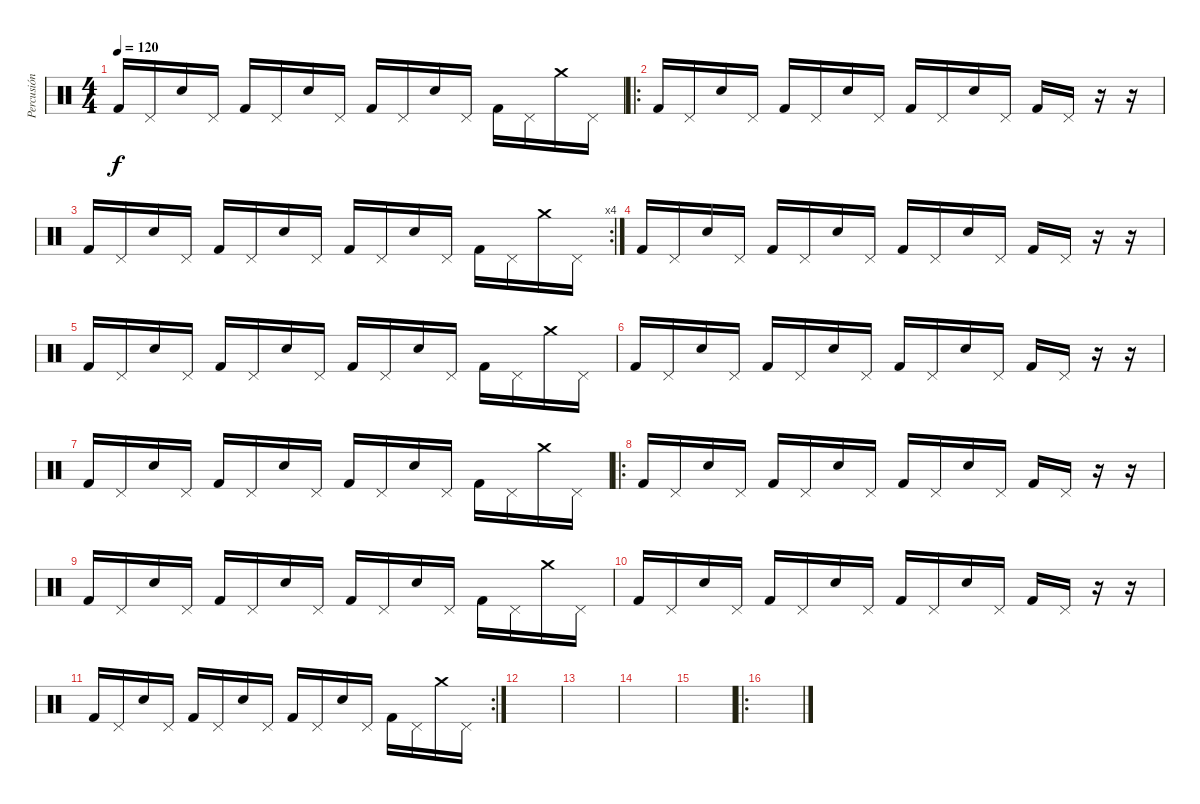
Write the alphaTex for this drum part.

\track ("Percusión" "Percusión") {instrument percussion}
\staff {score}
\articulation defaults
\ts (4 4)
\tempo 120
\clef neutral
\ks c "Kick (hit) 2".16{dy f} "Pedal Hi-Hat (hit)".16 "Snare (hit) 2".16 "Pedal Hi-Hat (hit)".16 "Kick (hit) 2".16 "Pedal Hi-Hat (hit)".16 "Snare (hit) 2".16 "Pedal Hi-Hat (hit)".16 "Kick (hit) 2".16 "Pedal Hi-Hat (hit)".16 "Snare (hit) 2".16 "Pedal Hi-Hat (hit)".16 "Kick (hit) 2".16 "Pedal Hi-Hat (hit)".16 "Crash medium (hit)".16 "Pedal Hi-Hat (hit)".16
|
\ro "Kick (hit) 2".16 "Pedal Hi-Hat (hit)".16 "Snare (hit) 2".16 "Pedal Hi-Hat (hit)".16 "Kick (hit) 2".16 "Pedal Hi-Hat (hit)".16 "Snare (hit) 2".16 "Pedal Hi-Hat (hit)".16 "Kick (hit) 2".16 "Pedal Hi-Hat (hit)".16 "Snare (hit) 2".16 "Pedal Hi-Hat (hit)".16 "Kick (hit) 2".16 "Pedal Hi-Hat (hit)".16
r.16 r.16 |
\rc 4 "Kick (hit) 2".16 "Pedal Hi-Hat (hit)".16 "Snare (hit) 2".16 "Pedal Hi-Hat (hit)".16 "Kick (hit) 2".16 "Pedal Hi-Hat (hit)".16 "Snare (hit) 2".16 "Pedal Hi-Hat (hit)".16 "Kick (hit) 2".16 "Pedal Hi-Hat (hit)".16 "Snare (hit) 2".16 "Pedal Hi-Hat (hit)".16 "Kick (hit) 2".16 "Pedal Hi-Hat (hit)".16 "Crash medium (hit)".16 "Pedal Hi-Hat (hit)".16
|
"Kick (hit) 2".16 "Pedal Hi-Hat (hit)".16 "Snare (hit) 2".16 "Pedal Hi-Hat (hit)".16 "Kick (hit) 2".16 "Pedal Hi-Hat (hit)".16 "Snare (hit) 2".16 "Pedal Hi-Hat (hit)".16 "Kick (hit) 2".16 "Pedal Hi-Hat (hit)".16 "Snare (hit) 2".16 "Pedal Hi-Hat (hit)".16 "Kick (hit) 2".16 "Pedal Hi-Hat (hit)".16 r.16 r.16 |
"Kick (hit) 2".16 "Pedal Hi-Hat (hit)".16 "Snare (hit) 2".16 "Pedal Hi-Hat (hit)".16 "Kick (hit) 2".16 "Pedal Hi-Hat (hit)".16 "Snare (hit) 2".16 "Pedal Hi-Hat (hit)".16 "Kick (hit) 2".16 "Pedal Hi-Hat (hit)".16 "Snare (hit) 2".16 "Pedal Hi-Hat (hit)".16 "Kick (hit) 2".16 "Pedal Hi-Hat (hit)".16 "Crash medium (hit)".16 "Pedal Hi-Hat (hit)".16 |
"Kick (hit) 2".16 "Pedal Hi-Hat (hit)".16 "Snare (hit) 2".16 "Pedal Hi-Hat (hit)".16 "Kick (hit) 2".16 "Pedal Hi-Hat (hit)".16 "Snare (hit) 2".16 "Pedal Hi-Hat (hit)".16 "Kick (hit) 2".16 "Pedal Hi-Hat (hit)".16 "Snare (hit) 2".16 "Pedal Hi-Hat (hit)".16 "Kick (hit) 2".16 "Pedal Hi-Hat (hit)".16 r.16 r.16 |
"Kick (hit) 2".16 "Pedal Hi-Hat (hit)".16 "Snare (hit) 2".16 "Pedal Hi-Hat (hit)".16 "Kick (hit) 2".16 "Pedal Hi-Hat (hit)".16 "Snare (hit) 2".16 "Pedal Hi-Hat (hit)".16 "Kick (hit) 2".16 "Pedal Hi-Hat (hit)".16 "Snare (hit) 2".16 "Pedal Hi-Hat (hit)".16 "Kick (hit) 2".16 "Pedal Hi-Hat (hit)".16 "Crash medium (hit)".16 "Pedal Hi-Hat (hit)".16 |
\ro "Kick (hit) 2".16 "Pedal Hi-Hat (hit)".16 "Snare (hit) 2".16 "Pedal Hi-Hat (hit)".16 "Kick (hit) 2".16 "Pedal Hi-Hat (hit)".16 "Snare (hit) 2".16 "Pedal Hi-Hat (hit)".16 "Kick (hit) 2".16 "Pedal Hi-Hat (hit)".16 "Snare (hit) 2".16 "Pedal Hi-Hat (hit)".16 "Kick (hit) 2".16 "Pedal Hi-Hat (hit)".16
r.16 r.16 |
"Kick (hit) 2".16 "Pedal Hi-Hat (hit)".16 "Snare (hit) 2".16 "Pedal Hi-Hat (hit)".16 "Kick (hit) 2".16 "Pedal Hi-Hat (hit)".16 "Snare (hit) 2".16 "Pedal Hi-Hat (hit)".16 "Kick (hit) 2".16 "Pedal Hi-Hat (hit)".16 "Snare (hit) 2".16 "Pedal Hi-Hat (hit)".16 "Kick (hit) 2".16 "Pedal Hi-Hat (hit)".16 "Crash medium (hit)".16 "Pedal Hi-Hat (hit)".16 |
"Kick (hit) 2".16 "Pedal Hi-Hat (hit)".16 "Snare (hit) 2".16 "Pedal Hi-Hat (hit)".16 "Kick (hit) 2".16 "Pedal Hi-Hat (hit)".16 "Snare (hit) 2".16 "Pedal Hi-Hat (hit)".16 "Kick (hit) 2".16 "Pedal Hi-Hat (hit)".16 "Snare (hit) 2".16 "Pedal Hi-Hat (hit)".16 "Kick (hit) 2".16 "Pedal Hi-Hat (hit)".16 r.16 r.16 |
\rc 2 "Kick (hit) 2".16 "Pedal Hi-Hat (hit)".16 "Snare (hit) 2".16 "Pedal Hi-Hat (hit)".16 "Kick (hit) 2".16 "Pedal Hi-Hat (hit)".16 "Snare (hit) 2".16 "Pedal Hi-Hat (hit)".16 "Kick (hit) 2".16 "Pedal Hi-Hat (hit)".16 "Snare (hit) 2".16 "Pedal Hi-Hat (hit)".16 "Kick (hit) 2".16 "Pedal Hi-Hat (hit)".16 "Crash medium (hit)".16 "Pedal Hi-Hat (hit)".16
|
|
|
|
|
\ro
